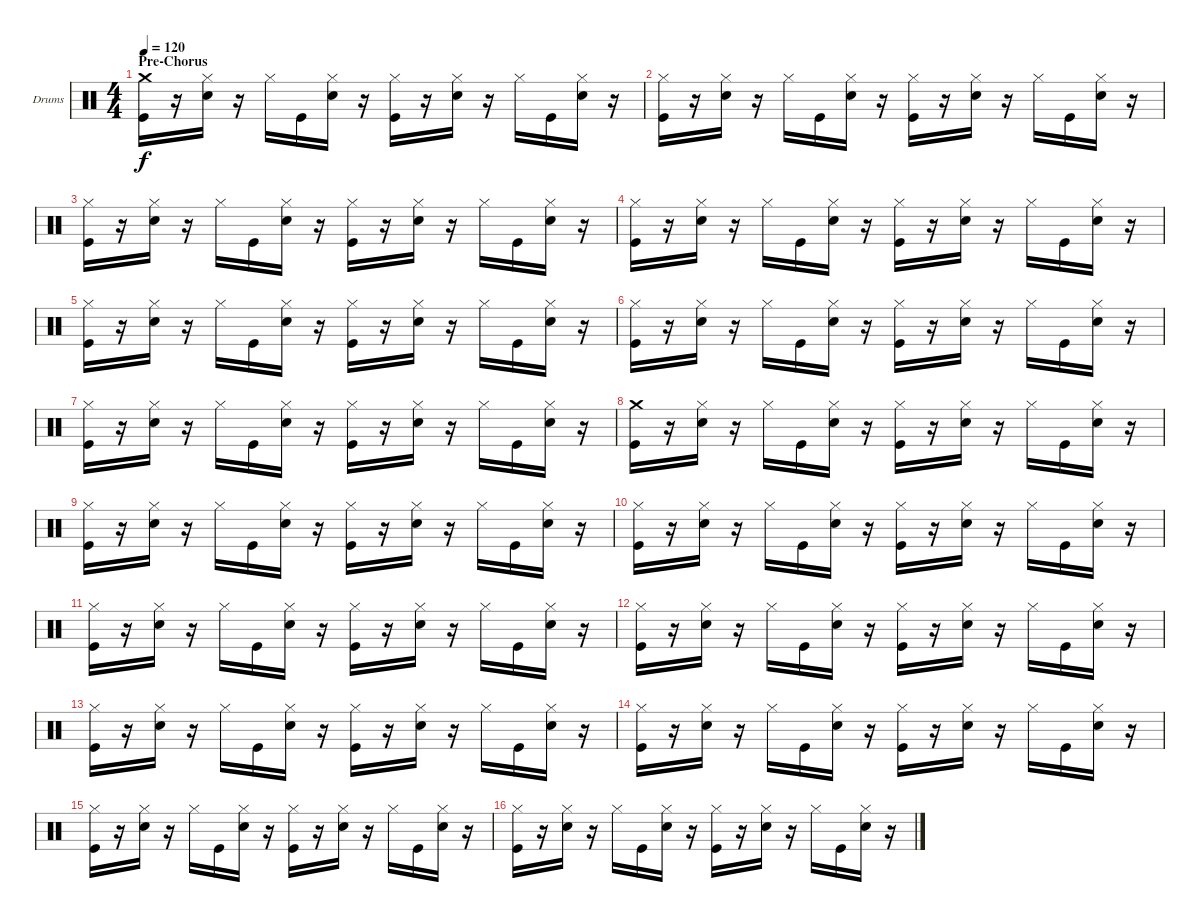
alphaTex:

\defaultSystemsLayout 4
\bracketExtendMode groupsimilarinstruments
\firstSystemTrackNameOrientation horizontal
\otherSystemsTrackNameOrientation horizontal
\track ("Jerinx" "Drums") {instrument percussion}
\staff {score}
\articulation defaults
\ts (4 4)
\section ("" "Pre-Chorus")
\tempo 120
\clef neutral
\ks c
("Kick (hit)" "Crash medium (hit)").16{dy f} r.16 ("Snare (hit) 2" "Hi-Hat (closed)").16 r.16 "Hi-Hat (closed)".16 "Kick (hit)".16 ("Snare (hit) 2" "Hi-Hat (closed)").16 r.16 ("Kick (hit)" "Hi-Hat (closed)").16 r.16 ("Snare (hit) 2" "Hi-Hat (closed)").16 r.16 "Hi-Hat (closed)".16 "Kick (hit)".16 ("Snare (hit) 2" "Hi-Hat (closed)").16 r.16 |
("Kick (hit)" "Hi-Hat (closed)").16 r.16 ("Snare (hit) 2" "Hi-Hat (closed)").16 r.16 "Hi-Hat (closed)".16 "Kick (hit)".16 ("Snare (hit) 2" "Hi-Hat (closed)").16 r.16 ("Kick (hit)" "Hi-Hat (closed)").16 r.16 ("Snare (hit) 2" "Hi-Hat (closed)").16 r.16 "Hi-Hat (closed)".16 "Kick (hit)".16 ("Snare (hit) 2" "Hi-Hat (closed)").16 r.16 |
("Kick (hit)" "Hi-Hat (closed)").16 r.16 ("Snare (hit) 2" "Hi-Hat (closed)").16 r.16 "Hi-Hat (closed)".16 "Kick (hit)".16 ("Snare (hit) 2" "Hi-Hat (closed)").16 r.16 ("Kick (hit)" "Hi-Hat (closed)").16 r.16 ("Snare (hit) 2" "Hi-Hat (closed)").16 r.16 "Hi-Hat (closed)".16 "Kick (hit)".16 ("Snare (hit) 2" "Hi-Hat (closed)").16 r.16 |
("Kick (hit)" "Hi-Hat (closed)").16 r.16 ("Snare (hit) 2" "Hi-Hat (closed)").16 r.16 "Hi-Hat (closed)".16 "Kick (hit)".16 ("Snare (hit) 2" "Hi-Hat (closed)").16 r.16 ("Kick (hit)" "Hi-Hat (closed)").16 r.16 ("Snare (hit) 2" "Hi-Hat (closed)").16 r.16 "Hi-Hat (closed)".16 "Kick (hit)".16 ("Snare (hit) 2" "Hi-Hat (closed)").16 r.16 |
("Kick (hit)" "Hi-Hat (closed)").16 r.16 ("Snare (hit) 2" "Hi-Hat (closed)").16 r.16 "Hi-Hat (closed)".16 "Kick (hit)".16 ("Snare (hit) 2" "Hi-Hat (closed)").16 r.16 ("Kick (hit)" "Hi-Hat (closed)").16 r.16 ("Snare (hit) 2" "Hi-Hat (closed)").16 r.16 "Hi-Hat (closed)".16 "Kick (hit)".16 ("Snare (hit) 2" "Hi-Hat (closed)").16 r.16 |
("Kick (hit)" "Hi-Hat (closed)").16 r.16 ("Snare (hit) 2" "Hi-Hat (closed)").16 r.16 "Hi-Hat (closed)".16 "Kick (hit)".16 ("Snare (hit) 2" "Hi-Hat (closed)").16 r.16 ("Kick (hit)" "Hi-Hat (closed)").16 r.16 ("Snare (hit) 2" "Hi-Hat (closed)").16 r.16 "Hi-Hat (closed)".16 "Kick (hit)".16 ("Snare (hit) 2" "Hi-Hat (closed)").16 r.16 |
("Kick (hit)" "Hi-Hat (closed)").16 r.16 ("Snare (hit) 2" "Hi-Hat (closed)").16 r.16 "Hi-Hat (closed)".16 "Kick (hit)".16 ("Snare (hit) 2" "Hi-Hat (closed)").16 r.16 ("Kick (hit)" "Hi-Hat (closed)").16 r.16 ("Snare (hit) 2" "Hi-Hat (closed)").16 r.16 "Hi-Hat (closed)".16 "Kick (hit)".16 ("Snare (hit) 2" "Hi-Hat (closed)").16 r.16 |
("Kick (hit)" "Crash medium (hit)").16 r.16 ("Snare (hit) 2" "Hi-Hat (closed)").16 r.16 "Hi-Hat (closed)".16 "Kick (hit)".16 ("Snare (hit) 2" "Hi-Hat (closed)").16 r.16 ("Kick (hit)" "Hi-Hat (closed)").16 r.16 ("Snare (hit) 2" "Hi-Hat (closed)").16 r.16 "Hi-Hat (closed)".16 "Kick (hit)".16 ("Snare (hit) 2" "Hi-Hat (closed)").16 r.16 |
("Kick (hit)" "Hi-Hat (closed)").16 r.16 ("Snare (hit) 2" "Hi-Hat (closed)").16 r.16 "Hi-Hat (closed)".16 "Kick (hit)".16 ("Snare (hit) 2" "Hi-Hat (closed)").16 r.16 ("Kick (hit)" "Hi-Hat (closed)").16 r.16 ("Snare (hit) 2" "Hi-Hat (closed)").16 r.16 "Hi-Hat (closed)".16 "Kick (hit)".16 ("Snare (hit) 2" "Hi-Hat (closed)").16 r.16 |
("Kick (hit)" "Hi-Hat (closed)").16 r.16 ("Snare (hit) 2" "Hi-Hat (closed)").16 r.16 "Hi-Hat (closed)".16 "Kick (hit)".16 ("Snare (hit) 2" "Hi-Hat (closed)").16 r.16 ("Kick (hit)" "Hi-Hat (closed)").16 r.16 ("Snare (hit) 2" "Hi-Hat (closed)").16 r.16 "Hi-Hat (closed)".16 "Kick (hit)".16 ("Snare (hit) 2" "Hi-Hat (closed)").16 r.16 |
("Kick (hit)" "Hi-Hat (closed)").16 r.16 ("Snare (hit) 2" "Hi-Hat (closed)").16 r.16 "Hi-Hat (closed)".16 "Kick (hit)".16 ("Snare (hit) 2" "Hi-Hat (closed)").16 r.16 ("Kick (hit)" "Hi-Hat (closed)").16 r.16 ("Snare (hit) 2" "Hi-Hat (closed)").16 r.16 "Hi-Hat (closed)".16 "Kick (hit)".16 ("Snare (hit) 2" "Hi-Hat (closed)").16 r.16 |
("Kick (hit)" "Hi-Hat (closed)").16 r.16 ("Snare (hit) 2" "Hi-Hat (closed)").16 r.16 "Hi-Hat (closed)".16 "Kick (hit)".16 ("Snare (hit) 2" "Hi-Hat (closed)").16 r.16 ("Kick (hit)" "Hi-Hat (closed)").16 r.16 ("Snare (hit) 2" "Hi-Hat (closed)").16 r.16 "Hi-Hat (closed)".16 "Kick (hit)".16 ("Snare (hit) 2" "Hi-Hat (closed)").16 r.16 |
("Kick (hit)" "Hi-Hat (closed)").16 r.16 ("Snare (hit) 2" "Hi-Hat (closed)").16 r.16 "Hi-Hat (closed)".16 "Kick (hit)".16 ("Snare (hit) 2" "Hi-Hat (closed)").16 r.16 ("Kick (hit)" "Hi-Hat (closed)").16 r.16 ("Snare (hit) 2" "Hi-Hat (closed)").16 r.16 "Hi-Hat (closed)".16 "Kick (hit)".16 ("Snare (hit) 2" "Hi-Hat (closed)").16 r.16 |
("Kick (hit)" "Hi-Hat (closed)").16 r.16 ("Snare (hit) 2" "Hi-Hat (closed)").16 r.16 "Hi-Hat (closed)".16 "Kick (hit)".16 ("Snare (hit) 2" "Hi-Hat (closed)").16 r.16 ("Kick (hit)" "Hi-Hat (closed)").16 r.16 ("Snare (hit) 2" "Hi-Hat (closed)").16 r.16 "Hi-Hat (closed)".16 "Kick (hit)".16 ("Snare (hit) 2" "Hi-Hat (closed)").16 r.16 |
("Kick (hit)" "Hi-Hat (closed)").16 r.16 ("Snare (hit) 2" "Hi-Hat (closed)").16 r.16 "Hi-Hat (closed)".16 "Kick (hit)".16 ("Snare (hit) 2" "Hi-Hat (closed)").16 r.16 ("Kick (hit)" "Hi-Hat (closed)").16 r.16 ("Snare (hit) 2" "Hi-Hat (closed)").16 r.16 "Hi-Hat (closed)".16 "Kick (hit)".16 ("Snare (hit) 2" "Hi-Hat (closed)").16 r.16 |
("Kick (hit)" "Hi-Hat (closed)").16 r.16 ("Snare (hit) 2" "Hi-Hat (closed)").16 r.16 "Hi-Hat (closed)".16 "Kick (hit)".16 ("Snare (hit) 2" "Hi-Hat (closed)").16 r.16 ("Kick (hit)" "Hi-Hat (closed)").16 r.16 ("Snare (hit) 2" "Hi-Hat (closed)").16 r.16 "Hi-Hat (closed)".16 "Kick (hit)".16 ("Snare (hit) 2" "Hi-Hat (closed)").16 r.16
